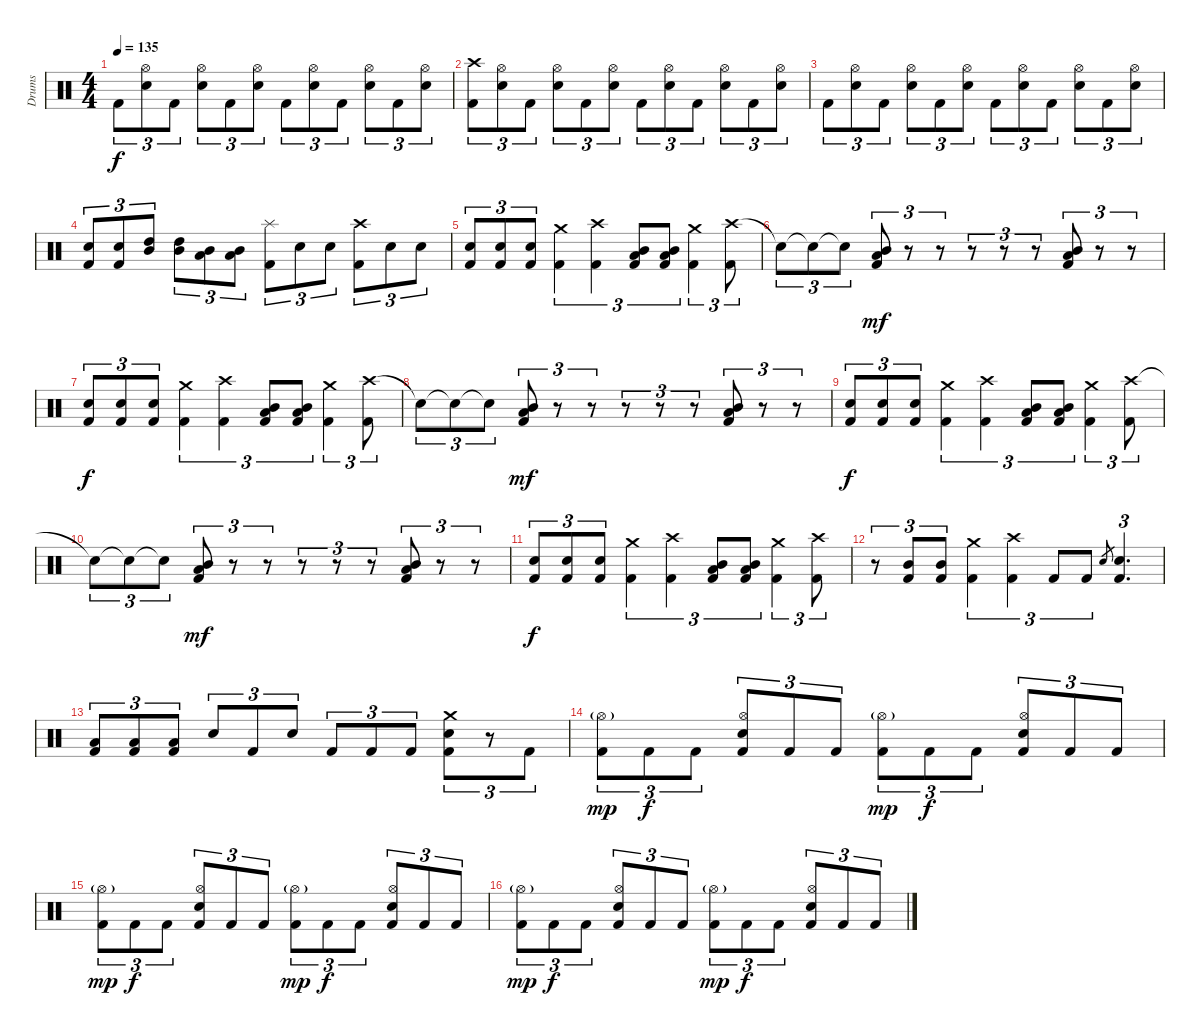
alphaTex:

\track ("Drums" "Drums") {instrument percussion}
\staff {score}
\articulation defaults
\ts (4 4)
\tempo 135
\clef neutral
\ks c "Kick (hit) 2".8{tu (3 2) dy f}
("Hi-Hat (open)" "Electric Snare (hit)").8{tu (3 2)} "Kick (hit) 2".8{tu (3 2)} ("Hi-Hat (open)" "Electric Snare (hit)").8{tu (3 2)} "Kick (hit) 2".8{tu (3 2)} ("Hi-Hat (open)" "Electric Snare (hit)").8{tu (3 2)} "Kick (hit) 2".8{tu (3 2)} ("Hi-Hat (open)" "Electric Snare (hit)").8{tu (3 2)} "Kick (hit) 2".8{tu (3 2)} ("Hi-Hat (open)" "Electric Snare (hit)").8{tu (3 2)} "Kick (hit) 2".8{tu (3 2)} ("Hi-Hat (open)" "Electric Snare (hit)").8{tu (3 2)} |
("Crash high (hit)" "Kick (hit) 2").8{tu (3 2)} ("Hi-Hat (open)" "Electric Snare (hit)").8{tu (3 2)} "Kick (hit) 2".8{tu (3 2)} ("Hi-Hat (open)" "Electric Snare (hit)").8{tu (3 2)} "Kick (hit) 2".8{tu (3 2)} ("Hi-Hat (open)" "Electric Snare (hit)").8{tu (3 2)} "Kick (hit) 2".8{tu (3 2)} ("Hi-Hat (open)" "Electric Snare (hit)").8{tu (3 2)} "Kick (hit) 2".8{tu (3 2)} ("Hi-Hat (open)" "Electric Snare (hit)").8{tu (3 2)} "Kick (hit) 2".8{tu (3 2)} ("Hi-Hat (open)" "Electric Snare (hit)").8{tu (3 2)} |
"Kick (hit) 2".8{tu (3 2)} ("Hi-Hat (open)" "Electric Snare (hit)").8{tu (3 2)} "Kick (hit) 2".8{tu (3 2)} ("Hi-Hat (open)" "Electric Snare (hit)").8{tu (3 2)} "Kick (hit) 2".8{tu (3 2)} ("Hi-Hat (open)" "Electric Snare (hit)").8{tu (3 2)} "Kick (hit) 2".8{tu (3 2)} ("Hi-Hat (open)" "Electric Snare (hit)").8{tu (3 2)} "Kick (hit) 2".8{tu (3 2)} ("Hi-Hat (open)" "Electric Snare (hit)").8{tu (3 2)} "Kick (hit) 2".8{tu (3 2)} ("Hi-Hat (open)" "Electric Snare (hit)").8{tu (3 2)} |
("Snare (hit) 2" "Kick (hit) 2").8{tu (3 2)} ("Snare (hit) 2" "Kick (hit) 2").8{tu (3 2)} ("Mid Tom (hit)" "High Tom (hit)").8{tu (3 2)} ("Mid Tom (hit)" "High Tom (hit)").8{tu (3 2)} ("Low Tom (hit)" "Mid Tom (hit)").8{tu (3 2)} ("Low Tom (hit)" "Mid Tom (hit)").8{tu (3 2)} ("Splash (hit)" "Kick (hit) 2").8{tu (3 2)} "Snare (hit) 2".8{tu (3 2)} "Snare (hit) 2".8{tu (3 2)} ("Crash high (hit)" "Kick (hit) 2").8{tu (3 2)} "Snare (hit) 2".8{tu (3 2)} "Snare (hit) 2".8{tu (3 2)} |
("Snare (hit) 2" "Kick (hit) 2").8{tu (3 2)} ("Snare (hit) 2" "Kick (hit) 2").8{tu (3 2)} ("Snare (hit) 2" "Kick (hit) 2").8{tu (3 2)} ("Crash medium (hit)" "Kick (hit) 2").4{tu (3 2)} ("Crash high (hit)" "Kick (hit) 2").4{tu (3 2)} ("Mid Tom (hit)" "Low Tom (hit)" "Kick (hit) 2").8{tu (3 2)} ("Mid Tom (hit)" "Low Tom (hit)" "Kick (hit) 2").8{tu (3 2)} ("Crash medium (hit)" "Kick (hit) 2").4{tu (3 2)} ("Crash high (hit)" "Kick (hit) 2").8{tu (3 2)} |
"Snare (hit)"{t}.8{tu (3 2)} "Snare (hit)"{t}.8{tu (3 2)} "Snare (hit)"{t}.8{tu (3 2)} ("Mid Tom (hit)" "Low Tom (hit)" "Kick (hit) 2").8{tu (3 2) dy mf} r.8{tu (3 2)} r.8{tu (3 2)} r.8{tu (3 2)} r.8{tu (3 2)} r.8{tu (3 2)} ("Mid Tom (hit)" "Low Tom (hit)" "Kick (hit) 2").8{tu (3 2)} r.8{tu (3 2)} r.8{tu (3 2)} |
("Snare (hit) 2" "Kick (hit) 2").8{tu (3 2) dy f} ("Snare (hit) 2" "Kick (hit) 2").8{tu (3 2)} ("Snare (hit) 2" "Kick (hit) 2").8{tu (3 2)} ("Crash medium (hit)" "Kick (hit) 2").4{tu (3 2)} ("Crash high (hit)" "Kick (hit) 2").4{tu (3 2)} ("Mid Tom (hit)" "Low Tom (hit)" "Kick (hit) 2").8{tu (3 2)} ("Mid Tom (hit)" "Low Tom (hit)" "Kick (hit) 2").8{tu (3 2)} ("Crash medium (hit)" "Kick (hit) 2").4{tu (3 2)} ("Crash high (hit)" "Kick (hit) 2").8{tu (3 2)} |
"Snare (hit)"{t}.8{tu (3 2)} "Snare (hit)"{t}.8{tu (3 2)} "Snare (hit)"{t}.8{tu (3 2)} ("Mid Tom (hit)" "Low Tom (hit)" "Kick (hit) 2").8{tu (3 2) dy mf} r.8{tu (3 2)} r.8{tu (3 2)} r.8{tu (3 2)} r.8{tu (3 2)} r.8{tu (3 2)} ("Mid Tom (hit)" "Low Tom (hit)" "Kick (hit) 2").8{tu (3 2)} r.8{tu (3 2)} r.8{tu (3 2)} |
("Snare (hit) 2" "Kick (hit) 2").8{tu (3 2) dy f} ("Snare (hit) 2" "Kick (hit) 2").8{tu (3 2)} ("Snare (hit) 2" "Kick (hit) 2").8{tu (3 2)} ("Crash medium (hit)" "Kick (hit) 2").4{tu (3 2)} ("Crash high (hit)" "Kick (hit) 2").4{tu (3 2)} ("Mid Tom (hit)" "Low Tom (hit)" "Kick (hit) 2").8{tu (3 2)} ("Mid Tom (hit)" "Low Tom (hit)" "Kick (hit) 2").8{tu (3 2)} ("Crash medium (hit)" "Kick (hit) 2").4{tu (3 2)} ("Crash high (hit)" "Kick (hit) 2").8{tu (3 2)} |
"Snare (hit)"{t}.8{tu (3 2)} "Snare (hit)"{t}.8{tu (3 2)} "Snare (hit)"{t}.8{tu (3 2)} ("Low Tom (hit)" "Mid Tom (hit)" "Kick (hit) 2").8{tu (3 2) dy mf} r.8{tu (3 2)} r.8{tu (3 2)} r.8{tu (3 2)} r.8{tu (3 2)} r.8{tu (3 2)} ("Mid Tom (hit)" "Low Tom (hit)" "Kick (hit) 2").8{tu (3 2)} r.8{tu (3 2)} r.8{tu (3 2)} |
("Snare (hit) 2" "Kick (hit) 2").8{tu (3 2) dy f} ("Snare (hit) 2" "Kick (hit) 2").8{tu (3 2)} ("Snare (hit) 2" "Kick (hit) 2").8{tu (3 2)} ("Crash medium (hit)" "Kick (hit) 2").4{tu (3 2)} ("Crash high (hit)" "Kick (hit) 2").4{tu (3 2)} ("Mid Tom (hit)" "Low Tom (hit)" "Kick (hit) 2").8{tu (3 2)} ("Mid Tom (hit)" "Low Tom (hit)" "Kick (hit) 2").8{tu (3 2)} ("Crash medium (hit)" "Kick (hit) 2").4{tu (3 2)} ("Crash high (hit)" "Kick (hit) 2").8{tu (3 2)} |
r.8{tu (3 2)} ("Mid Tom (hit)" "Kick (hit) 2").8{tu (3 2)} ("Mid Tom (hit)" "Kick (hit) 2").8{tu (3 2)} ("Crash medium (hit)" "Kick (hit) 2").4{tu (3 2)} ("Crash high (hit)" "Kick (hit) 2").4{tu (3 2)} "Kick (hit) 2".8{tu (3 2)} "Kick (hit) 2".8{tu (3 2)} "Snare (hit) 2".8{gr} ("Snare (hit) 2" "Kick (hit) 2").4{d tu (3 2)} |
("Low Tom (hit)" "Kick (hit) 2").8{tu (3 2)} ("Low Tom (hit)" "Kick (hit) 2").8{tu (3 2)} ("Low Tom (hit)" "Kick (hit) 2").8{tu (3 2)} "Snare (hit) 2".8{tu (3 2)} "Kick (hit) 2".8{tu (3 2)} "Snare (hit) 2".8{tu (3 2)} "Kick (hit) 2".8{tu (3 2)} "Kick (hit) 2".8{tu (3 2)} "Kick (hit) 2".8{tu (3 2)} ("Crash medium (hit)" "Snare (hit) 2" "Kick (hit) 2").8{tu (3 2)} r.8{tu (3 2)} "Kick (hit) 2".8{tu (3 2)} |
("Hi-Hat (open)"{g} "Kick (hit) 2").8{tu (3 2) dy mp} "Kick (hit) 2".8{tu (3 2) dy f} "Kick (hit) 2".8{tu (3 2)} ("Hi-Hat (open)" "Electric Snare (hit)" "Kick (hit) 2").8{tu (3 2)} "Kick (hit) 2".8{tu (3 2)} "Kick (hit) 2".8{tu (3 2)} ("Hi-Hat (open)"{g} "Kick (hit) 2").8{tu (3 2) dy mp} "Kick (hit) 2".8{tu (3 2) dy f} "Kick (hit) 2".8{tu (3 2)} ("Hi-Hat (open)" "Electric Snare (hit)" "Kick (hit) 2").8{tu (3 2)} "Kick (hit) 2".8{tu (3 2)} "Kick (hit) 2".8{tu (3 2)} |
("Hi-Hat (open)"{g} "Kick (hit) 2").8{tu (3 2) dy mp} "Kick (hit) 2".8{tu (3 2) dy f} "Kick (hit) 2".8{tu (3 2)} ("Hi-Hat (open)" "Electric Snare (hit)" "Kick (hit) 2").8{tu (3 2)} "Kick (hit) 2".8{tu (3 2)} "Kick (hit) 2".8{tu (3 2)} ("Hi-Hat (open)"{g} "Kick (hit) 2").8{tu (3 2) dy mp} "Kick (hit) 2".8{tu (3 2) dy f} "Kick (hit) 2".8{tu (3 2)} ("Hi-Hat (open)" "Electric Snare (hit)" "Kick (hit) 2").8{tu (3 2)} "Kick (hit) 2".8{tu (3 2)} "Kick (hit) 2".8{tu (3 2)} |
("Hi-Hat (open)"{g} "Kick (hit) 2").8{tu (3 2) dy mp} "Kick (hit) 2".8{tu (3 2) dy f} "Kick (hit) 2".8{tu (3 2)} ("Hi-Hat (open)" "Electric Snare (hit)" "Kick (hit) 2").8{tu (3 2)} "Kick (hit) 2".8{tu (3 2)} "Kick (hit) 2".8{tu (3 2)} ("Hi-Hat (open)"{g} "Kick (hit) 2").8{tu (3 2) dy mp} "Kick (hit) 2".8{tu (3 2) dy f} "Kick (hit) 2".8{tu (3 2)} ("Hi-Hat (open)" "Electric Snare (hit)" "Kick (hit) 2").8{tu (3 2)} "Kick (hit) 2".8{tu (3 2)} "Kick (hit) 2".8{tu (3 2)}
